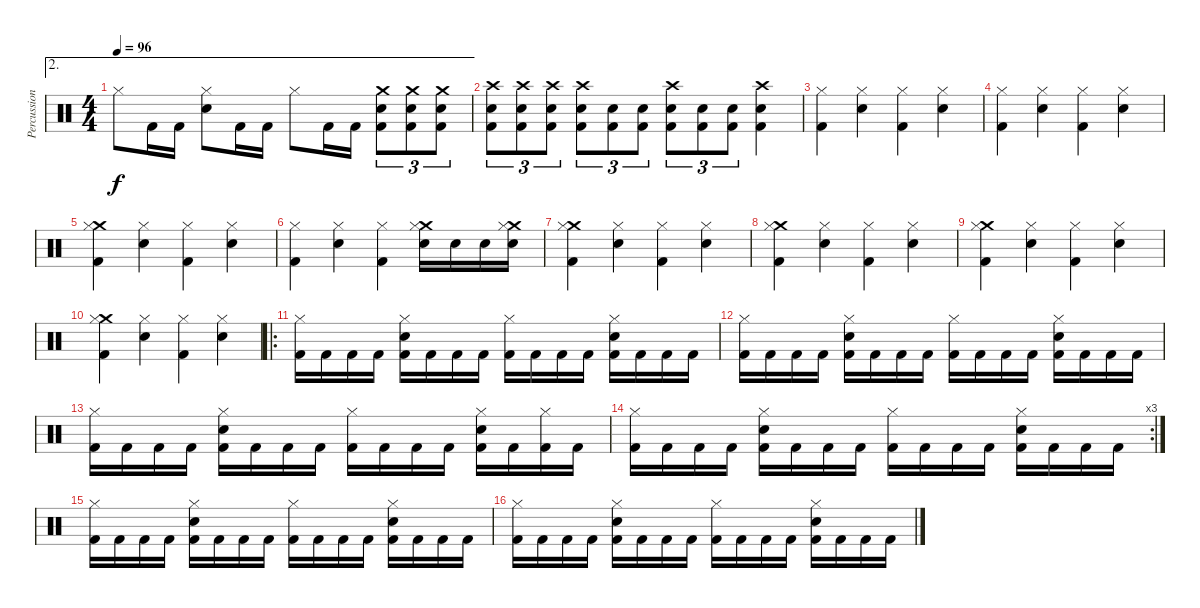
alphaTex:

\track ("Percussion" "Percussion") {instrument percussion}
\staff {score}
\articulation defaults
\ae 2
\ts (4 4)
\tempo 96
\clef neutral
\ks c "Hi-Hat (closed)".8{dy f} "Kick (hit) 2".16 "Kick (hit) 2".16
("Hi-Hat (closed)" "Electric Snare (hit)").8 "Kick (hit) 2".16 "Kick (hit) 2".16 "Hi-Hat (closed)".8 "Kick (hit) 2".16 "Kick (hit) 2".16 ("Crash medium (hit)" "Electric Snare (hit)" "Kick (hit) 2").8{tu (3 2)} ("Crash medium (hit)" "Electric Snare (hit)" "Kick (hit) 2").8{tu (3 2)} ("Crash medium (hit)" "Electric Snare (hit)" "Kick (hit) 2").8{tu (3 2)} |
("Crash high (hit)" "Electric Snare (hit)" "Kick (hit) 2").8{tu (3 2)} ("Crash high (hit)" "Electric Snare (hit)" "Kick (hit) 2").8{tu (3 2)} ("Crash high (hit)" "Electric Snare (hit)" "Kick (hit) 2").8{tu (3 2)} ("Crash high (hit)" "Electric Snare (hit)" "Kick (hit) 2").8{tu (3 2)} ("Electric Snare (hit)" "Kick (hit) 2").8{tu (3 2)} ("Electric Snare (hit)" "Kick (hit) 2").8{tu (3 2)} ("Crash high (hit)" "Electric Snare (hit)" "Kick (hit) 2").8{tu (3 2)} ("Electric Snare (hit)" "Kick (hit) 2").8{tu (3 2)} ("Electric Snare (hit)" "Kick (hit) 2").8{tu (3 2)} ("Crash high (hit)" "Electric Snare (hit)" "Kick (hit) 2").4 |
("Hi-Hat (closed)" "Kick (hit) 2").4 ("Hi-Hat (closed)" "Electric Snare (hit)").4 ("Hi-Hat (closed)" "Kick (hit) 2").4 ("Hi-Hat (closed)" "Electric Snare (hit)").4 |
("Hi-Hat (closed)" "Kick (hit) 2").4 ("Hi-Hat (closed)" "Electric Snare (hit)").4 ("Hi-Hat (closed)" "Kick (hit) 2").4 ("Hi-Hat (closed)" "Electric Snare (hit)").4 |
("Crash medium (hit)" "Hi-Hat (closed)" "Kick (hit) 2").4 ("Hi-Hat (closed)" "Electric Snare (hit)").4 ("Hi-Hat (closed)" "Kick (hit) 2").4 ("Hi-Hat (closed)" "Electric Snare (hit)").4 |
("Hi-Hat (closed)" "Kick (hit) 2").4 ("Hi-Hat (closed)" "Electric Snare (hit)").4 ("Hi-Hat (closed)" "Kick (hit) 2").4 ("Crash medium (hit)" "Hi-Hat (closed)" "Electric Snare (hit)").16 "Electric Snare (hit)".16 "Electric Snare (hit)".16 ("Crash medium (hit)" "Hi-Hat (closed)" "Electric Snare (hit)").16 |
("Crash medium (hit)" "Hi-Hat (closed)" "Kick (hit) 2").4 ("Hi-Hat (closed)" "Electric Snare (hit)").4 ("Hi-Hat (closed)" "Kick (hit) 2").4 ("Hi-Hat (closed)" "Electric Snare (hit)").4 |
("Crash medium (hit)" "Hi-Hat (closed)" "Kick (hit) 2").4 ("Hi-Hat (closed)" "Electric Snare (hit)").4 ("Hi-Hat (closed)" "Kick (hit) 2").4 ("Hi-Hat (closed)" "Electric Snare (hit)").4 |
("Crash medium (hit)" "Hi-Hat (closed)" "Kick (hit) 2").4 ("Hi-Hat (closed)" "Electric Snare (hit)").4 ("Hi-Hat (closed)" "Kick (hit) 2").4 ("Hi-Hat (closed)" "Electric Snare (hit)").4 |
("Crash medium (hit)" "Hi-Hat (closed)" "Kick (hit) 2").4 ("Hi-Hat (closed)" "Electric Snare (hit)").4 ("Hi-Hat (closed)" "Kick (hit) 2").4 ("Hi-Hat (closed)" "Electric Snare (hit)").4 |
\ro
("Hi-Hat (closed)" "Kick (hit) 2").16 "Kick (hit) 2".16 "Kick (hit) 2".16 "Kick (hit) 2".16 ("Hi-Hat (closed)" "Electric Snare (hit)" "Kick (hit) 2").16 "Kick (hit) 2".16 "Kick (hit) 2".16 "Kick (hit) 2".16 ("Hi-Hat (closed)" "Kick (hit) 2").16 "Kick (hit) 2".16 "Kick (hit) 2".16 "Kick (hit) 2".16 ("Hi-Hat (closed)" "Electric Snare (hit)" "Kick (hit) 2").16 "Kick (hit) 2".16 "Kick (hit) 2".16 "Kick (hit) 2".16 |
("Hi-Hat (closed)" "Kick (hit) 2").16 "Kick (hit) 2".16 "Kick (hit) 2".16 "Kick (hit) 2".16 ("Hi-Hat (closed)" "Electric Snare (hit)" "Kick (hit) 2").16 "Kick (hit) 2".16 "Kick (hit) 2".16 "Kick (hit) 2".16 ("Hi-Hat (closed)" "Kick (hit) 2").16 "Kick (hit) 2".16 "Kick (hit) 2".16 "Kick (hit) 2".16 ("Hi-Hat (closed)" "Electric Snare (hit)" "Kick (hit) 2").16 "Kick (hit) 2".16 "Kick (hit) 2".16 "Kick (hit) 2".16 |
("Hi-Hat (closed)" "Kick (hit) 2").16 "Kick (hit) 2".16 "Kick (hit) 2".16 "Kick (hit) 2".16 ("Hi-Hat (closed)" "Electric Snare (hit)" "Kick (hit) 2").16 "Kick (hit) 2".16 "Kick (hit) 2".16 "Kick (hit) 2".16 ("Hi-Hat (closed)" "Kick (hit) 2").16 "Kick (hit) 2".16 "Kick (hit) 2".16 "Kick (hit) 2".16 ("Hi-Hat (closed)" "Electric Snare (hit)" "Kick (hit) 2").16 "Kick (hit) 2".16 ("Hi-Hat (closed)" "Kick (hit) 2").16 "Kick (hit) 2".16 |
\rc 3
("Hi-Hat (closed)" "Kick (hit) 2").16 "Kick (hit) 2".16 "Kick (hit) 2".16 "Kick (hit) 2".16 ("Hi-Hat (closed)" "Electric Snare (hit)" "Kick (hit) 2").16 "Kick (hit) 2".16 "Kick (hit) 2".16 "Kick (hit) 2".16 ("Hi-Hat (closed)" "Kick (hit) 2").16 "Kick (hit) 2".16 "Kick (hit) 2".16 "Kick (hit) 2".16 ("Hi-Hat (closed)" "Electric Snare (hit)" "Kick (hit) 2").16 "Kick (hit) 2".16 "Kick (hit) 2".16 "Kick (hit) 2".16 |
("Hi-Hat (closed)" "Kick (hit) 2").16 "Kick (hit) 2".16 "Kick (hit) 2".16 "Kick (hit) 2".16 ("Hi-Hat (closed)" "Electric Snare (hit)" "Kick (hit) 2").16 "Kick (hit) 2".16 "Kick (hit) 2".16 "Kick (hit) 2".16 ("Hi-Hat (closed)" "Kick (hit) 2").16 "Kick (hit) 2".16 "Kick (hit) 2".16 "Kick (hit) 2".16 ("Hi-Hat (closed)" "Electric Snare (hit)" "Kick (hit) 2").16 "Kick (hit) 2".16 "Kick (hit) 2".16 "Kick (hit) 2".16 |
("Hi-Hat (closed)" "Kick (hit) 2").16 "Kick (hit) 2".16 "Kick (hit) 2".16 "Kick (hit) 2".16 ("Hi-Hat (closed)" "Electric Snare (hit)" "Kick (hit) 2").16 "Kick (hit) 2".16 "Kick (hit) 2".16 "Kick (hit) 2".16 ("Hi-Hat (closed)" "Kick (hit) 2").16 "Kick (hit) 2".16 "Kick (hit) 2".16 "Kick (hit) 2".16 ("Hi-Hat (closed)" "Electric Snare (hit)" "Kick (hit) 2").16 "Kick (hit) 2".16 "Kick (hit) 2".16 "Kick (hit) 2".16
